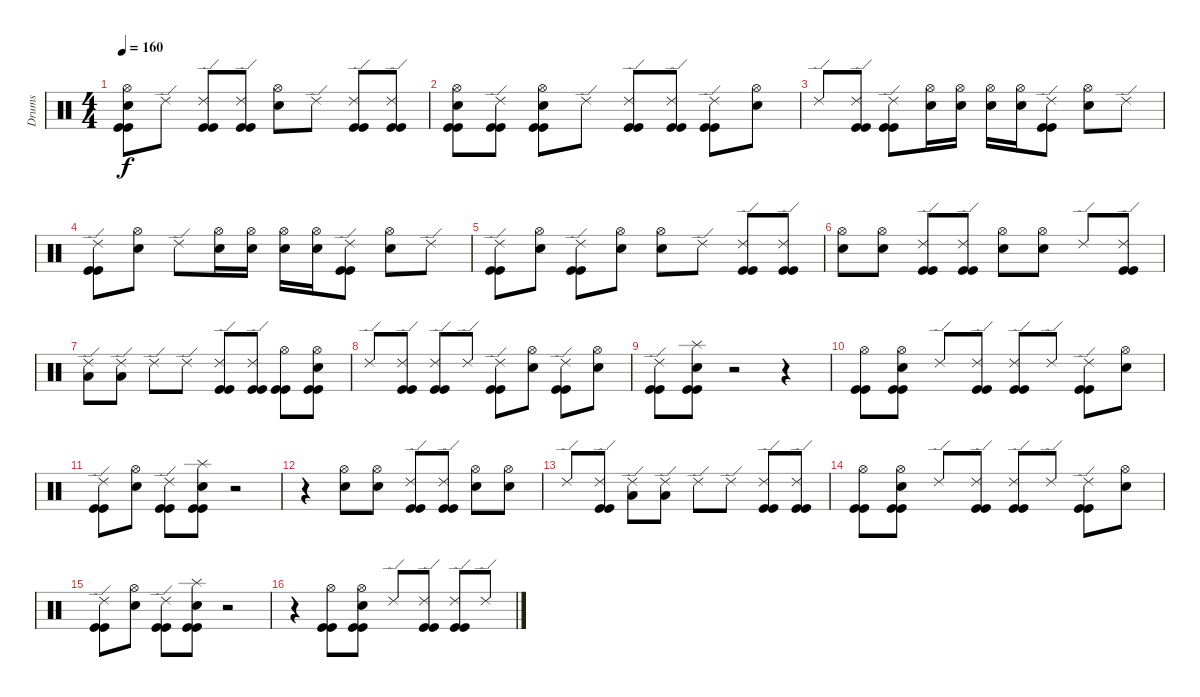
\track ("Drums" "Drums") {instrument percussion}
\staff {score}
\articulation defaults
\ts (4 4)
\tempo 160
\clef neutral
\ks c
("Hi-Hat (open)" "Snare (hit) 2" "Kick (hit)" "Kick (hit)").8{dy f} "Ride (edge) 2".8 ("Ride (edge) 2" "Kick (hit)" "Kick (hit)").8 ("Ride (edge) 2" "Kick (hit)" "Kick (hit)").8 ("Hi-Hat (open)" "Snare (hit) 2").8 "Ride (edge) 2".8 ("Ride (edge) 2" "Kick (hit)" "Kick (hit)").8 ("Ride (edge) 2" "Kick (hit)" "Kick (hit)").8 |
("Hi-Hat (open)" "Snare (hit) 2" "Kick (hit)" "Kick (hit)").8 ("Ride (edge) 2" "Kick (hit)" "Kick (hit)").8 ("Hi-Hat (open)" "Snare (hit) 2" "Kick (hit)" "Kick (hit)").8 "Ride (edge) 2".8 ("Ride (edge) 2" "Kick (hit)" "Kick (hit)").8 ("Ride (edge) 2" "Kick (hit)" "Kick (hit)").8 ("Ride (edge) 2" "Kick (hit)" "Kick (hit)").8 ("Hi-Hat (open)" "Snare (hit) 2").8 |
"Ride (edge) 2".8 ("Ride (edge) 2" "Kick (hit)" "Kick (hit)").8 ("Ride (edge) 2" "Kick (hit)" "Kick (hit)").8 ("Hi-Hat (open)" "Snare (hit) 2").16 ("Hi-Hat (open)" "Snare (hit) 2").16 ("Hi-Hat (open)" "Snare (hit) 2").16 ("Hi-Hat (open)" "Snare (hit) 2").16 ("Ride (edge) 2" "Kick (hit)" "Kick (hit)").8 ("Hi-Hat (open)" "Snare (hit) 2").8 "Ride (edge) 2".8 |
("Ride (edge) 2" "Kick (hit)" "Kick (hit)").8 ("Hi-Hat (open)" "Snare (hit) 2").8 "Ride (edge) 2".8 ("Hi-Hat (open)" "Snare (hit) 2").16 ("Hi-Hat (open)" "Snare (hit) 2").16 ("Hi-Hat (open)" "Snare (hit) 2").16 ("Hi-Hat (open)" "Snare (hit) 2").16 ("Ride (edge) 2" "Kick (hit)" "Kick (hit)").8 ("Hi-Hat (open)" "Snare (hit) 2").8 "Ride (edge) 2".8 |
("Ride (edge) 2" "Kick (hit)" "Kick (hit)").8 ("Hi-Hat (open)" "Snare (hit) 2").8 ("Ride (edge) 2" "Kick (hit)" "Kick (hit)").8 ("Hi-Hat (open)" "Snare (hit) 2").8 ("Hi-Hat (open)" "Snare (hit) 2").8 "Ride (edge) 2".8 ("Ride (edge) 2" "Kick (hit)" "Kick (hit)").8 ("Ride (edge) 2" "Kick (hit)" "Kick (hit)").8 |
("Hi-Hat (open)" "Snare (hit) 2").8 ("Hi-Hat (open)" "Snare (hit) 2").8 ("Ride (edge) 2" "Kick (hit)" "Kick (hit)").8 ("Ride (edge) 2" "Kick (hit)" "Kick (hit)").8 ("Hi-Hat (open)" "Snare (hit) 2").8 ("Hi-Hat (open)" "Snare (hit) 2").8 "Ride (edge) 2".8 ("Ride (edge) 2" "Kick (hit)" "Kick (hit)").8 |
("Ride (edge) 2" "Low Tom (hit)").8 ("Ride (edge) 2" "Low Tom (hit)").8 "Ride (edge) 2".8 "Ride (edge) 2".8 ("Ride (edge) 2" "Kick (hit)" "Kick (hit)").8 ("Ride (edge) 2" "Kick (hit)" "Kick (hit)").8 ("Hi-Hat (open)" "Kick (hit)" "Kick (hit)").8 ("Hi-Hat (open)" "Snare (hit) 2" "Kick (hit)" "Kick (hit)").8 |
"Ride (edge) 2".8 ("Ride (edge) 2" "Kick (hit)" "Kick (hit)").8 ("Ride (edge) 2" "Kick (hit)" "Kick (hit)").8 "Ride (edge) 2".8 ("Ride (edge) 2" "Kick (hit)" "Kick (hit)").8 ("Hi-Hat (open)" "Snare (hit) 2").8 ("Ride (edge) 2" "Kick (hit)" "Kick (hit)").8 ("Hi-Hat (open)" "Snare (hit) 2").8 |
("Ride (edge) 2" "Kick (hit)" "Kick (hit)").8 ("Splash (hit)" "Snare (hit) 2" "Kick (hit)" "Kick (hit)").8 r.2 r.4 |
("Hi-Hat (open)" "Kick (hit)" "Kick (hit)").8 ("Hi-Hat (open)" "Snare (hit) 2" "Kick (hit)" "Kick (hit)").8 "Ride (edge) 2".8 ("Ride (edge) 2" "Kick (hit)" "Kick (hit)").8 ("Ride (edge) 2" "Kick (hit)" "Kick (hit)").8 "Ride (edge) 2".8 ("Ride (edge) 2" "Kick (hit)" "Kick (hit)").8 ("Hi-Hat (open)" "Snare (hit) 2").8 |
("Ride (edge) 2" "Kick (hit)" "Kick (hit)").8 ("Hi-Hat (open)" "Snare (hit) 2").8 ("Ride (edge) 2" "Kick (hit)" "Kick (hit)").8 ("Splash (hit)" "Snare (hit) 2" "Kick (hit)" "Kick (hit)").8 r.2 |
r.4 ("Hi-Hat (open)" "Snare (hit) 2").8 ("Hi-Hat (open)" "Snare (hit) 2").8 ("Ride (edge) 2" "Kick (hit)" "Kick (hit)").8 ("Ride (edge) 2" "Kick (hit)" "Kick (hit)").8 ("Hi-Hat (open)" "Snare (hit) 2").8 ("Hi-Hat (open)" "Snare (hit) 2").8 |
"Ride (edge) 2".8 ("Ride (edge) 2" "Kick (hit)" "Kick (hit)").8 ("Ride (edge) 2" "Low Tom (hit)").8 ("Ride (edge) 2" "Low Tom (hit)").8 "Ride (edge) 2".8 "Ride (edge) 2".8 ("Ride (edge) 2" "Kick (hit)" "Kick (hit)").8 ("Ride (edge) 2" "Kick (hit)" "Kick (hit)").8 |
("Hi-Hat (open)" "Kick (hit)" "Kick (hit)").8 ("Hi-Hat (open)" "Snare (hit) 2" "Kick (hit)" "Kick (hit)").8 "Ride (edge) 2".8 ("Ride (edge) 2" "Kick (hit)" "Kick (hit)").8 ("Ride (edge) 2" "Kick (hit)" "Kick (hit)").8 "Ride (edge) 2".8 ("Ride (edge) 2" "Kick (hit)" "Kick (hit)").8 ("Hi-Hat (open)" "Snare (hit) 2").8 |
("Ride (edge) 2" "Kick (hit)" "Kick (hit)").8 ("Hi-Hat (open)" "Snare (hit) 2").8 ("Ride (edge) 2" "Kick (hit)" "Kick (hit)").8 ("Splash (hit)" "Snare (hit) 2" "Kick (hit)" "Kick (hit)").8 r.2 |
r.4 ("Hi-Hat (open)" "Kick (hit)" "Kick (hit)").8 ("Hi-Hat (open)" "Snare (hit) 2" "Kick (hit)" "Kick (hit)").8 "Ride (edge) 2".8 ("Ride (edge) 2" "Kick (hit)" "Kick (hit)").8 ("Ride (edge) 2" "Kick (hit)" "Kick (hit)").8 "Ride (edge) 2".8
